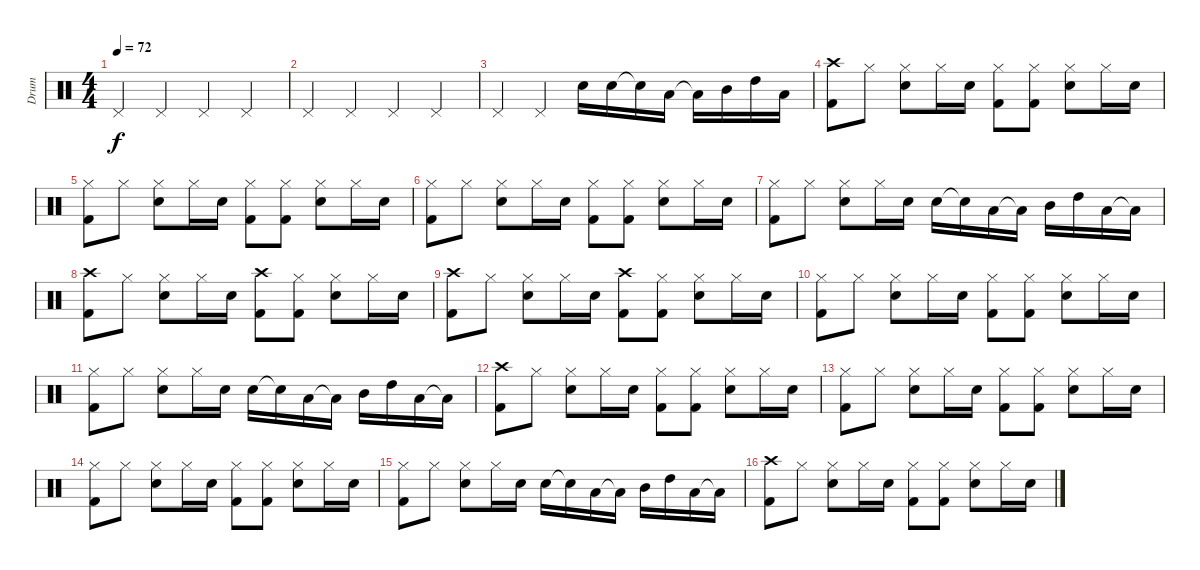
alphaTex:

\track ("Drum" "Drum") {instrument percussion}
\staff {score}
\articulation defaults
\ts (4 4)
\tempo 72
\clef neutral
\ks c "Pedal Hi-Hat (hit)".4{dy f} "Pedal Hi-Hat (hit)".4 "Pedal Hi-Hat (hit)".4 "Pedal Hi-Hat (hit)".4
|
"Pedal Hi-Hat (hit)".4 "Pedal Hi-Hat (hit)".4 "Pedal Hi-Hat (hit)".4 "Pedal Hi-Hat (hit)".4 |
"Pedal Hi-Hat (hit)".4 "Pedal Hi-Hat (hit)".4 "Electric Snare (hit)".16 "Electric Snare (hit)".16 "Electric Snare (hit)"{t}.16 "Low Tom (hit)".16 "Low Tom (hit)"{t}.16 "Mid Tom (hit)".16 "High Tom (hit)".16 "Low Tom (hit)".16 |
("Crash high (hit)" "Kick (hit) 2").8 "Hi-Hat (closed)".8 ("Hi-Hat (closed)" "Electric Snare (hit)").8 "Hi-Hat (closed)".16 "Electric Snare (hit)".16 ("Hi-Hat (closed)" "Kick (hit) 2").8 ("Hi-Hat (closed)" "Kick (hit) 2").8 ("Electric Snare (hit)" "Hi-Hat (closed)").8 "Hi-Hat (closed)".16 "Electric Snare (hit)".16 |
("Hi-Hat (closed)" "Kick (hit) 2").8 "Hi-Hat (closed)".8 ("Hi-Hat (closed)" "Electric Snare (hit)").8 "Hi-Hat (closed)".16 "Electric Snare (hit)".16 ("Hi-Hat (closed)" "Kick (hit) 2").8 ("Hi-Hat (closed)" "Kick (hit) 2").8 ("Electric Snare (hit)" "Hi-Hat (closed)").8 "Hi-Hat (closed)".16 "Electric Snare (hit)".16 |
("Hi-Hat (closed)" "Kick (hit) 2").8 "Hi-Hat (closed)".8 ("Hi-Hat (closed)" "Electric Snare (hit)").8 "Hi-Hat (closed)".16 "Electric Snare (hit)".16 ("Hi-Hat (closed)" "Kick (hit) 2").8 ("Hi-Hat (closed)" "Kick (hit) 2").8 ("Electric Snare (hit)" "Hi-Hat (closed)").8 "Hi-Hat (closed)".16 "Electric Snare (hit)".16 |
("Hi-Hat (closed)" "Kick (hit) 2").8 "Hi-Hat (closed)".8 ("Hi-Hat (closed)" "Electric Snare (hit)").8 "Hi-Hat (closed)".16 "Electric Snare (hit)".16 "Electric Snare (hit)".16 "Electric Snare (hit)"{t}.16 "Low Tom (hit)".16 "Low Tom (hit)"{t}.16 "Mid Tom (hit)".16 "High Tom (hit)".16 "Low Tom (hit)".16 "Low Tom (hit)"{t}.16 |
("Crash high (hit)" "Kick (hit) 2").8 "Hi-Hat (closed)".8 ("Hi-Hat (closed)" "Electric Snare (hit)").8 "Hi-Hat (closed)".16 "Electric Snare (hit)".16 ("Crash high (hit)" "Kick (hit) 2").8 ("Hi-Hat (closed)" "Kick (hit) 2").8 ("Electric Snare (hit)" "Hi-Hat (closed)").8 "Hi-Hat (closed)".16 "Electric Snare (hit)".16 |
("Crash high (hit)" "Kick (hit) 2").8 "Hi-Hat (closed)".8 ("Hi-Hat (closed)" "Electric Snare (hit)").8 "Hi-Hat (closed)".16 "Electric Snare (hit)".16 ("Crash high (hit)" "Kick (hit) 2").8 ("Hi-Hat (closed)" "Kick (hit) 2").8 ("Electric Snare (hit)" "Hi-Hat (closed)").8 "Hi-Hat (closed)".16 "Electric Snare (hit)".16 |
("Hi-Hat (closed)" "Kick (hit) 2").8 "Hi-Hat (closed)".8 ("Hi-Hat (closed)" "Electric Snare (hit)").8 "Hi-Hat (closed)".16 "Electric Snare (hit)".16 ("Hi-Hat (closed)" "Kick (hit) 2").8 ("Hi-Hat (closed)" "Kick (hit) 2").8 ("Electric Snare (hit)" "Hi-Hat (closed)").8 "Hi-Hat (closed)".16 "Electric Snare (hit)".16 |
("Hi-Hat (closed)" "Kick (hit) 2").8 "Hi-Hat (closed)".8 ("Hi-Hat (closed)" "Electric Snare (hit)").8 "Hi-Hat (closed)".16 "Electric Snare (hit)".16 "Electric Snare (hit)".16 "Electric Snare (hit)"{t}.16 "Low Tom (hit)".16 "Low Tom (hit)"{t}.16 "Mid Tom (hit)".16 "High Tom (hit)".16 "Low Tom (hit)".16 "Low Tom (hit)"{t}.16 |
("Crash high (hit)" "Kick (hit) 2").8 "Hi-Hat (closed)".8 ("Hi-Hat (closed)" "Electric Snare (hit)").8 "Hi-Hat (closed)".16 "Electric Snare (hit)".16 ("Hi-Hat (closed)" "Kick (hit) 2").8 ("Hi-Hat (closed)" "Kick (hit) 2").8 ("Electric Snare (hit)" "Hi-Hat (closed)").8 "Hi-Hat (closed)".16 "Electric Snare (hit)".16 |
("Hi-Hat (closed)" "Kick (hit) 2").8 "Hi-Hat (closed)".8 ("Hi-Hat (closed)" "Electric Snare (hit)").8 "Hi-Hat (closed)".16 "Electric Snare (hit)".16 ("Hi-Hat (closed)" "Kick (hit) 2").8 ("Hi-Hat (closed)" "Kick (hit) 2").8 ("Electric Snare (hit)" "Hi-Hat (closed)").8 "Hi-Hat (closed)".16 "Electric Snare (hit)".16 |
("Hi-Hat (closed)" "Kick (hit) 2").8 "Hi-Hat (closed)".8 ("Hi-Hat (closed)" "Electric Snare (hit)").8 "Hi-Hat (closed)".16 "Electric Snare (hit)".16 ("Hi-Hat (closed)" "Kick (hit) 2").8 ("Hi-Hat (closed)" "Kick (hit) 2").8 ("Electric Snare (hit)" "Hi-Hat (closed)").8 "Hi-Hat (closed)".16 "Electric Snare (hit)".16 |
("Hi-Hat (closed)" "Kick (hit) 2").8 "Hi-Hat (closed)".8 ("Hi-Hat (closed)" "Electric Snare (hit)").8 "Hi-Hat (closed)".16 "Electric Snare (hit)".16 "Electric Snare (hit)".16 "Electric Snare (hit)"{t}.16 "Low Tom (hit)".16 "Low Tom (hit)"{t}.16 "Mid Tom (hit)".16 "High Tom (hit)".16 "Low Tom (hit)".16 "Low Tom (hit)"{t}.16 |
("Crash high (hit)" "Kick (hit) 2").8 "Hi-Hat (closed)".8 ("Hi-Hat (closed)" "Electric Snare (hit)").8 "Hi-Hat (closed)".16 "Electric Snare (hit)".16 ("Hi-Hat (closed)" "Kick (hit) 2").8 ("Hi-Hat (closed)" "Kick (hit) 2").8 ("Electric Snare (hit)" "Hi-Hat (closed)").8 "Hi-Hat (closed)".16 "Electric Snare (hit)".16
